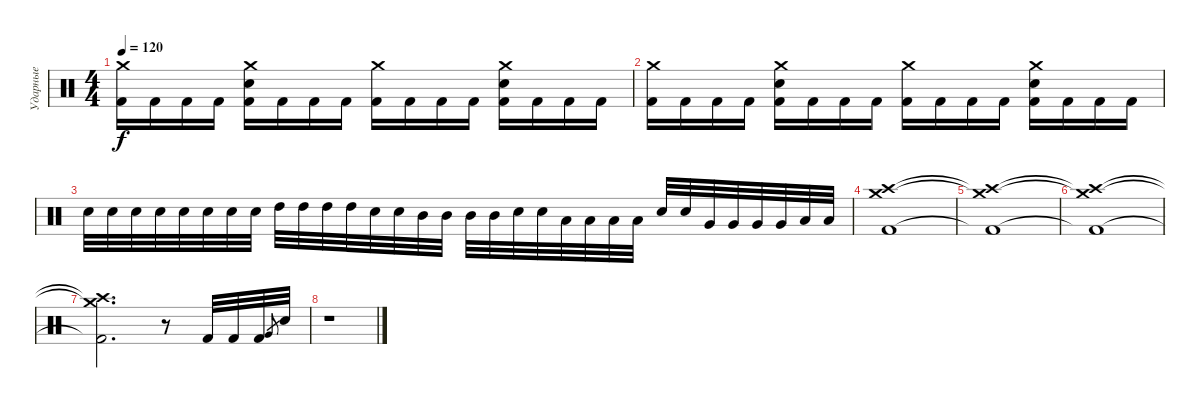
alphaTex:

\track ("Ударные" "Ударные") {instrument percussion}
\staff {score}
\articulation defaults
\ts (4 4)
\tempo 120
\clef neutral
\ks c
("Crash medium (hit)" "Kick (hit) 2").16{dy f} "Kick (hit) 2".16 "Kick (hit) 2".16 "Kick (hit) 2".16 ("Crash medium (hit)" "Electric Snare (hit)" "Kick (hit) 2").16 "Kick (hit) 2".16 "Kick (hit) 2".16 "Kick (hit) 2".16 ("Crash medium (hit)" "Kick (hit) 2").16 "Kick (hit) 2".16 "Kick (hit) 2".16 "Kick (hit) 2".16 ("Crash medium (hit)" "Electric Snare (hit)" "Kick (hit) 2").16 "Kick (hit) 2".16 "Kick (hit) 2".16 "Kick (hit) 2".16 |
("Crash medium (hit)" "Kick (hit) 2").16 "Kick (hit) 2".16 "Kick (hit) 2".16 "Kick (hit) 2".16 ("Crash medium (hit)" "Electric Snare (hit)" "Kick (hit) 2").16 "Kick (hit) 2".16 "Kick (hit) 2".16 "Kick (hit) 2".16 ("Crash medium (hit)" "Kick (hit) 2").16 "Kick (hit) 2".16 "Kick (hit) 2".16 "Kick (hit) 2".16 ("Crash medium (hit)" "Electric Snare (hit)" "Kick (hit) 2").16 "Kick (hit) 2".16 "Kick (hit) 2".16 "Kick (hit) 2".16 |
"Electric Snare (hit)".32 "Electric Snare (hit)".32 "Electric Snare (hit)".32 "Electric Snare (hit)".32 "Electric Snare (hit)".32 "Electric Snare (hit)".32 "Electric Snare (hit)".32 "Electric Snare (hit)".32 "High Tom (hit)".32 "High Tom (hit)".32 "High Tom (hit)".32 "High Tom (hit)".32 "Electric Snare (hit)".32 "Electric Snare (hit)".32 "Mid Tom (hit)".32 "Mid Tom (hit)".32 "Mid Tom (hit)".32 "Mid Tom (hit)".32 "Electric Snare (hit)".32 "Electric Snare (hit)".32 "Low Tom (hit)".32 "Low Tom (hit)".32 "Low Tom (hit)".32 "Low Tom (hit)".32 "Electric Snare (hit)".32 "Electric Snare (hit)".32 "Very Low Tom (hit)".32 "Very Low Tom (hit)".32 "Very Low Tom (hit)".32 "Very Low Tom (hit)".32 "Low Floor Tom (hit)".32 "Low Floor Tom (hit)".32 |
("Crash medium (hit)" "Crash high (hit)" "Kick (hit) 2").1 |
("Crash medium (hit)"{t} "Crash high (hit)"{t} "Kick (hit) 2"{t}).1 |
("Crash medium (hit)"{t} "Crash high (hit)"{t} "Kick (hit) 2"{t}).1 |
("Crash medium (hit)"{t} "Crash high (hit)"{t} "Kick (hit) 2"{t}).2{d} r.8 "Kick (hit) 2".32 "Kick (hit) 2".32 "Kick (hit) 2".32 "Very Low Tom (hit)".8{gr} "Electric Snare (hit)".32 |
r.1
